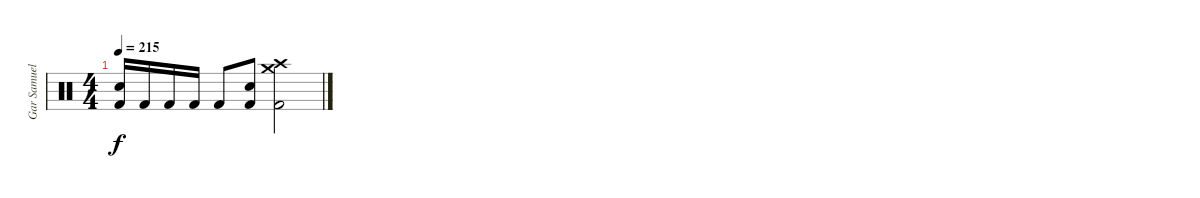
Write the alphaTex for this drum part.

\track ("Gar Samuelson" "Gar Samuel") {instrument percussion}
\staff
\articulation defaults
\ts (4 4)
\tempo 215
\clef neutral
\ks c
("Snare (hit) 2" "Kick (hit) 2").16{dy f} "Kick (hit) 2".16 "Kick (hit) 2".16 "Kick (hit) 2".16 "Kick (hit) 2".8 ("Snare (hit) 2" "Kick (hit) 2").8 ("Crash medium (hit)" "Crash high (hit)" "Kick (hit) 2").2
